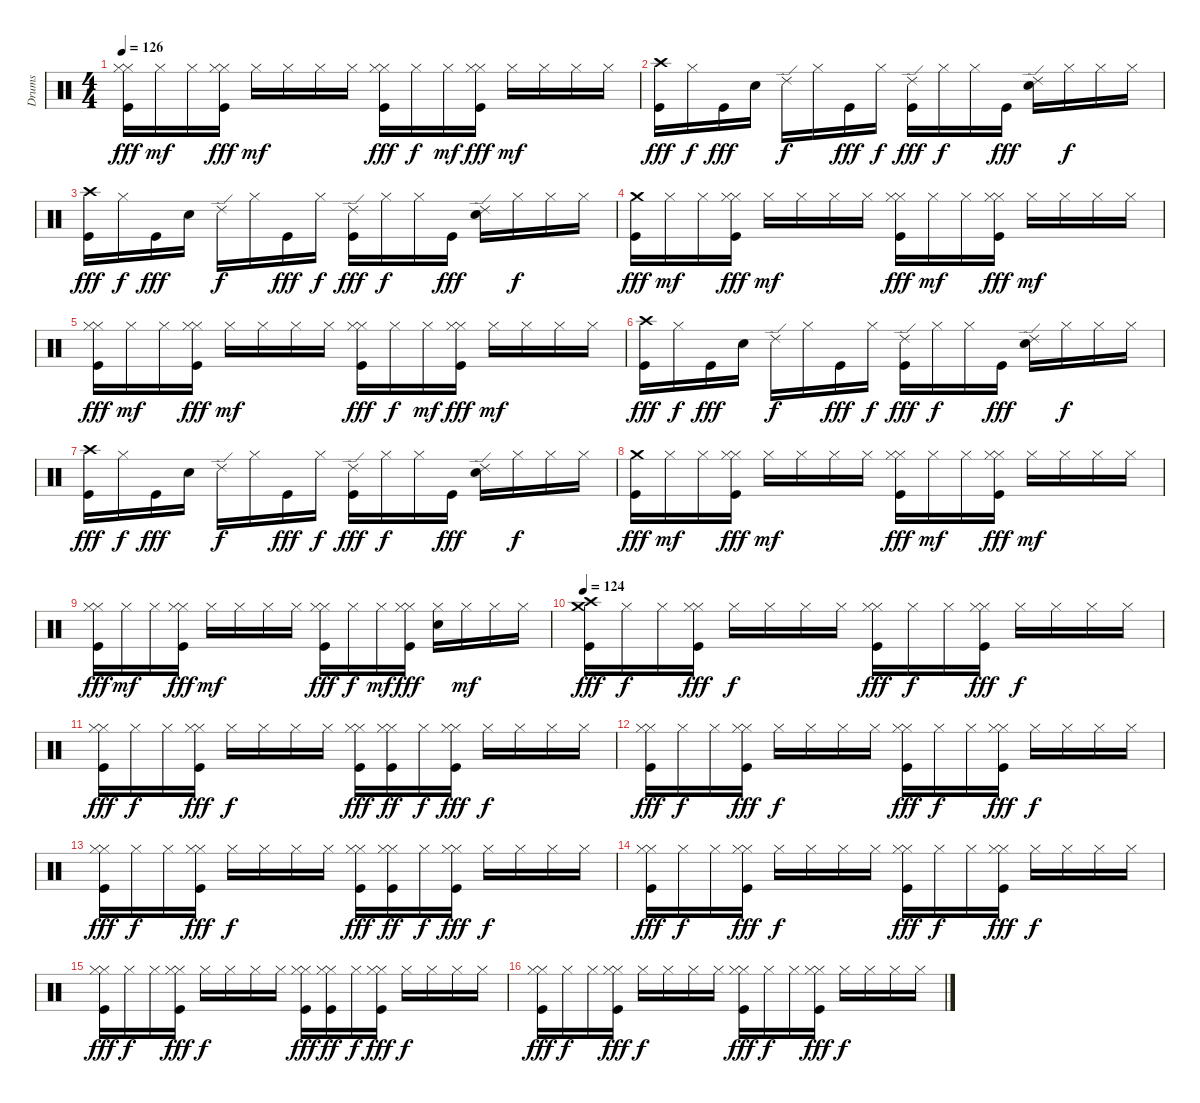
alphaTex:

\track ("Drums" "Drums") {instrument percussion}
\staff {score}
\articulation defaults
\ts (4 4)
\tempo 126
\clef neutral
\ks c
("Hi-Hat (closed)" "Hi-Hat (closed)" "Kick (hit)").16{dy fff} "Hi-Hat (closed)".16{dy mf} "Hi-Hat (closed)".16 ("Hi-Hat (closed)" "Hi-Hat (closed)" "Kick (hit)").16{dy fff} "Hi-Hat (closed)".16{dy mf} "Hi-Hat (closed)".16 "Hi-Hat (closed)".16 "Hi-Hat (closed)".16 ("Hi-Hat (closed)" "Hi-Hat (closed)" "Kick (hit)").16{dy fff} "Hi-Hat (closed)".16{dy f} "Hi-Hat (closed)".16{dy mf} ("Hi-Hat (closed)" "Hi-Hat (closed)" "Kick (hit)").16{dy fff} "Hi-Hat (closed)".16{dy mf} "Hi-Hat (closed)".16 "Hi-Hat (closed)".16 "Hi-Hat (closed)".16 |
("Crash high (hit)" "Kick (hit)").16{dy fff} "Hi-Hat (closed)".16{dy f} "Kick (hit)".16{dy fff} "Snare (hit) 2".16 "Ride (edge) 2".16{dy f} "Hi-Hat (closed)".16 "Kick (hit)".16{dy fff} "Hi-Hat (closed)".16{dy f} ("Ride (edge) 2" "Kick (hit)").16{dy fff} "Hi-Hat (closed)".16{dy f} "Hi-Hat (closed)".16 "Kick (hit)".16{dy fff} ("Ride (edge) 2" "Snare (hit) 2").16 "Hi-Hat (closed)".16{dy f} "Hi-Hat (closed)".16 "Hi-Hat (closed)".16 |
("Crash high (hit)" "Kick (hit)").16{dy fff} "Hi-Hat (closed)".16{dy f} "Kick (hit)".16{dy fff} "Snare (hit) 2".16 "Ride (edge) 2".16{dy f} "Hi-Hat (closed)".16 "Kick (hit)".16{dy fff} "Hi-Hat (closed)".16{dy f} ("Ride (edge) 2" "Kick (hit)").16{dy fff} "Hi-Hat (closed)".16{dy f} "Hi-Hat (closed)".16 "Kick (hit)".16{dy fff} ("Ride (edge) 2" "Snare (hit) 2").16 "Hi-Hat (closed)".16{dy f} "Hi-Hat (closed)".16 "Hi-Hat (closed)".16 |
("Crash medium (hit)" "Kick (hit)").16{dy fff} "Hi-Hat (closed)".16{dy mf} "Hi-Hat (closed)".16 ("Hi-Hat (closed)" "Hi-Hat (closed)" "Kick (hit)").16{dy fff} "Hi-Hat (closed)".16{dy mf} "Hi-Hat (closed)".16 "Hi-Hat (closed)".16 "Hi-Hat (closed)".16 ("Hi-Hat (closed)" "Hi-Hat (closed)" "Kick (hit)").16{dy fff} "Hi-Hat (closed)".16{dy mf} "Hi-Hat (closed)".16 ("Hi-Hat (closed)" "Hi-Hat (closed)" "Kick (hit)").16{dy fff} "Hi-Hat (closed)".16{dy mf} "Hi-Hat (closed)".16 "Hi-Hat (closed)".16 "Hi-Hat (closed)".16 |
("Hi-Hat (closed)" "Hi-Hat (closed)" "Kick (hit)").16{dy fff} "Hi-Hat (closed)".16{dy mf} "Hi-Hat (closed)".16 ("Hi-Hat (closed)" "Hi-Hat (closed)" "Kick (hit)").16{dy fff} "Hi-Hat (closed)".16{dy mf} "Hi-Hat (closed)".16 "Hi-Hat (closed)".16 "Hi-Hat (closed)".16 ("Hi-Hat (closed)" "Hi-Hat (closed)" "Kick (hit)").16{dy fff} "Hi-Hat (closed)".16{dy f} "Hi-Hat (closed)".16{dy mf} ("Hi-Hat (closed)" "Hi-Hat (closed)" "Kick (hit)").16{dy fff} "Hi-Hat (closed)".16{dy mf} "Hi-Hat (closed)".16 "Hi-Hat (closed)".16 "Hi-Hat (closed)".16 |
("Crash high (hit)" "Kick (hit)").16{dy fff} "Hi-Hat (closed)".16{dy f} "Kick (hit)".16{dy fff} "Snare (hit) 2".16 "Ride (edge) 2".16{dy f} "Hi-Hat (closed)".16 "Kick (hit)".16{dy fff} "Hi-Hat (closed)".16{dy f} ("Ride (edge) 2" "Kick (hit)").16{dy fff} "Hi-Hat (closed)".16{dy f} "Hi-Hat (closed)".16 "Kick (hit)".16{dy fff} ("Ride (edge) 2" "Snare (hit) 2").16 "Hi-Hat (closed)".16{dy f} "Hi-Hat (closed)".16 "Hi-Hat (closed)".16 |
("Crash high (hit)" "Kick (hit)").16{dy fff} "Hi-Hat (closed)".16{dy f} "Kick (hit)".16{dy fff} "Snare (hit) 2".16 "Ride (edge) 2".16{dy f} "Hi-Hat (closed)".16 "Kick (hit)".16{dy fff} "Hi-Hat (closed)".16{dy f} ("Ride (edge) 2" "Kick (hit)").16{dy fff} "Hi-Hat (closed)".16{dy f} "Hi-Hat (closed)".16 "Kick (hit)".16{dy fff} ("Ride (edge) 2" "Snare (hit) 2").16 "Hi-Hat (closed)".16{dy f} "Hi-Hat (closed)".16 "Hi-Hat (closed)".16 |
("Crash medium (hit)" "Kick (hit)").16{dy fff} "Hi-Hat (closed)".16{dy mf} "Hi-Hat (closed)".16 ("Hi-Hat (closed)" "Hi-Hat (closed)" "Kick (hit)").16{dy fff} "Hi-Hat (closed)".16{dy mf} "Hi-Hat (closed)".16 "Hi-Hat (closed)".16 "Hi-Hat (closed)".16 ("Hi-Hat (closed)" "Hi-Hat (closed)" "Kick (hit)").16{dy fff} "Hi-Hat (closed)".16{dy mf} "Hi-Hat (closed)".16 ("Hi-Hat (closed)" "Hi-Hat (closed)" "Kick (hit)").16{dy fff} "Hi-Hat (closed)".16{dy mf} "Hi-Hat (closed)".16 "Hi-Hat (closed)".16 "Hi-Hat (closed)".16 |
("Hi-Hat (closed)" "Hi-Hat (closed)" "Kick (hit)").16{dy fff} "Hi-Hat (closed)".16{dy mf} "Hi-Hat (closed)".16 ("Hi-Hat (closed)" "Hi-Hat (closed)" "Kick (hit)").16{dy fff} "Hi-Hat (closed)".16{dy mf} "Hi-Hat (closed)".16 "Hi-Hat (closed)".16 "Hi-Hat (closed)".16 ("Hi-Hat (closed)" "Hi-Hat (closed)" "Kick (hit)").16{dy fff} "Hi-Hat (closed)".16{dy f} "Hi-Hat (closed)".16{dy mf} ("Hi-Hat (closed)" "Hi-Hat (closed)" "Kick (hit)").16{dy fff} ("Hi-Hat (closed)" "Snare (hit) 2").16 "Hi-Hat (closed)".16{dy mf} "Hi-Hat (closed)".16 "Hi-Hat (closed)".16 |
\tempo 124
("Crash high (hit)" "Crash medium (hit)" "Kick (hit)").16{dy fff} "Hi-Hat (closed)".16{dy f} "Hi-Hat (closed)".16 ("Hi-Hat (closed)" "Hi-Hat (closed)" "Kick (hit)").16{dy fff} "Hi-Hat (closed)".16{dy f} "Hi-Hat (closed)".16 "Hi-Hat (closed)".16 "Hi-Hat (closed)".16 ("Hi-Hat (closed)" "Hi-Hat (closed)" "Kick (hit)").16{dy fff} "Hi-Hat (closed)".16{dy f} "Hi-Hat (closed)".16 ("Hi-Hat (closed)" "Hi-Hat (closed)" "Kick (hit)").16{dy fff} "Hi-Hat (closed)".16{dy f} "Hi-Hat (closed)".16 "Hi-Hat (closed)".16 "Hi-Hat (closed)".16 |
("Hi-Hat (closed)" "Hi-Hat (closed)" "Kick (hit)").16{dy fff} "Hi-Hat (closed)".16{dy f} "Hi-Hat (closed)".16 ("Hi-Hat (closed)" "Hi-Hat (closed)" "Kick (hit)").16{dy fff} "Hi-Hat (closed)".16{dy f} "Hi-Hat (closed)".16 "Hi-Hat (closed)".16 "Hi-Hat (closed)".16 ("Hi-Hat (closed)" "Hi-Hat (closed)" "Kick (hit)").16{dy fff} ("Hi-Hat (closed)" "Hi-Hat (closed)" "Kick (hit)").16{dy ff} "Hi-Hat (closed)".16{dy f} ("Hi-Hat (closed)" "Hi-Hat (closed)" "Kick (hit)").16{dy fff} "Hi-Hat (closed)".16{dy f} "Hi-Hat (closed)".16 "Hi-Hat (closed)".16 "Hi-Hat (closed)".16 |
("Hi-Hat (closed)" "Hi-Hat (closed)" "Kick (hit)").16{dy fff} "Hi-Hat (closed)".16{dy f} "Hi-Hat (closed)".16 ("Hi-Hat (closed)" "Hi-Hat (closed)" "Kick (hit)").16{dy fff} "Hi-Hat (closed)".16{dy f} "Hi-Hat (closed)".16 "Hi-Hat (closed)".16 "Hi-Hat (closed)".16 ("Hi-Hat (closed)" "Hi-Hat (closed)" "Kick (hit)").16{dy fff} "Hi-Hat (closed)".16{dy f} "Hi-Hat (closed)".16 ("Hi-Hat (closed)" "Hi-Hat (closed)" "Kick (hit)").16{dy fff} "Hi-Hat (closed)".16{dy f} "Hi-Hat (closed)".16 "Hi-Hat (closed)".16 "Hi-Hat (closed)".16 |
("Hi-Hat (closed)" "Hi-Hat (closed)" "Kick (hit)").16{dy fff} "Hi-Hat (closed)".16{dy f} "Hi-Hat (closed)".16 ("Hi-Hat (closed)" "Hi-Hat (closed)" "Kick (hit)").16{dy fff} "Hi-Hat (closed)".16{dy f} "Hi-Hat (closed)".16 "Hi-Hat (closed)".16 "Hi-Hat (closed)".16 ("Hi-Hat (closed)" "Hi-Hat (closed)" "Kick (hit)").16{dy fff} ("Hi-Hat (closed)" "Hi-Hat (closed)" "Kick (hit)").16{dy ff} "Hi-Hat (closed)".16{dy f} ("Hi-Hat (closed)" "Hi-Hat (closed)" "Kick (hit)").16{dy fff} "Hi-Hat (closed)".16{dy f} "Hi-Hat (closed)".16 "Hi-Hat (closed)".16 "Hi-Hat (closed)".16 |
("Hi-Hat (closed)" "Hi-Hat (closed)" "Kick (hit)").16{dy fff} "Hi-Hat (closed)".16{dy f} "Hi-Hat (closed)".16 ("Hi-Hat (closed)" "Hi-Hat (closed)" "Kick (hit)").16{dy fff} "Hi-Hat (closed)".16{dy f} "Hi-Hat (closed)".16 "Hi-Hat (closed)".16 "Hi-Hat (closed)".16 ("Hi-Hat (closed)" "Hi-Hat (closed)" "Kick (hit)").16{dy fff} "Hi-Hat (closed)".16{dy f} "Hi-Hat (closed)".16 ("Hi-Hat (closed)" "Hi-Hat (closed)" "Kick (hit)").16{dy fff} "Hi-Hat (closed)".16{dy f} "Hi-Hat (closed)".16 "Hi-Hat (closed)".16 "Hi-Hat (closed)".16 |
("Hi-Hat (closed)" "Hi-Hat (closed)" "Kick (hit)").16{dy fff} "Hi-Hat (closed)".16{dy f} "Hi-Hat (closed)".16 ("Hi-Hat (closed)" "Hi-Hat (closed)" "Kick (hit)").16{dy fff} "Hi-Hat (closed)".16{dy f} "Hi-Hat (closed)".16 "Hi-Hat (closed)".16 "Hi-Hat (closed)".16 ("Hi-Hat (closed)" "Hi-Hat (closed)" "Kick (hit)").16{dy fff} ("Hi-Hat (closed)" "Hi-Hat (closed)" "Kick (hit)").16{dy ff} "Hi-Hat (closed)".16{dy f} ("Hi-Hat (closed)" "Hi-Hat (closed)" "Kick (hit)").16{dy fff} "Hi-Hat (closed)".16{dy f} "Hi-Hat (closed)".16 "Hi-Hat (closed)".16 "Hi-Hat (closed)".16 |
("Hi-Hat (closed)" "Hi-Hat (closed)" "Kick (hit)").16{dy fff} "Hi-Hat (closed)".16{dy f} "Hi-Hat (closed)".16 ("Hi-Hat (closed)" "Hi-Hat (closed)" "Kick (hit)").16{dy fff} "Hi-Hat (closed)".16{dy f} "Hi-Hat (closed)".16 "Hi-Hat (closed)".16 "Hi-Hat (closed)".16 ("Hi-Hat (closed)" "Hi-Hat (closed)" "Kick (hit)").16{dy fff} "Hi-Hat (closed)".16{dy f} "Hi-Hat (closed)".16 ("Hi-Hat (closed)" "Hi-Hat (closed)" "Kick (hit)").16{dy fff} "Hi-Hat (closed)".16{dy f} "Hi-Hat (closed)".16 "Hi-Hat (closed)".16 "Hi-Hat (closed)".16
